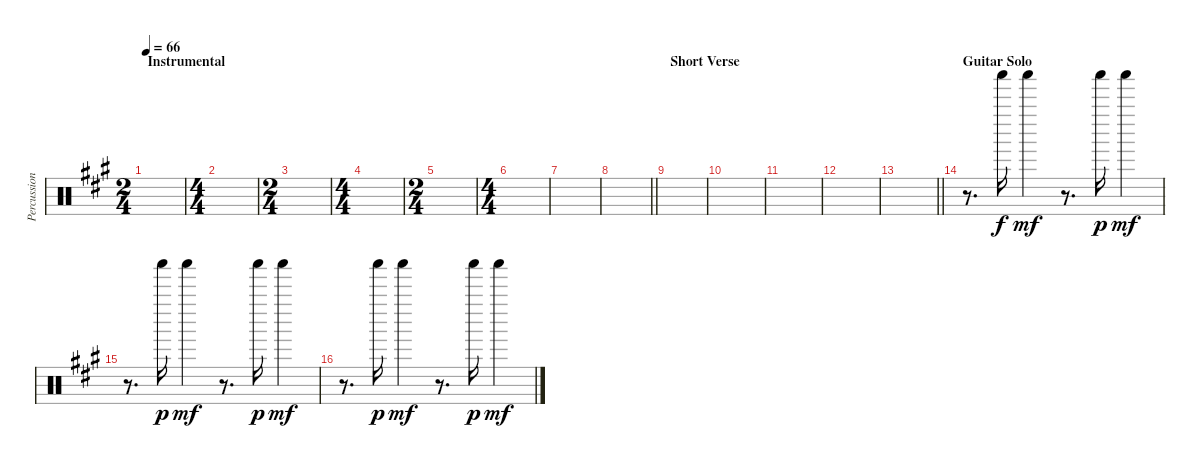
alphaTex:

\track ("Percussion" "Percussion") {instrument percussion}
\staff {score}
\articulation defaults
\ts (2 4)
\section ("" "Instrumental")
\tempo 66
\clef neutral
\ks f#minor
|
\ts (4 4)
|
\ts (2 4)
|
\ts (4 4)
|
\ts (2 4)
|
\ts (4 4)
|
|
\barLineRight lightlight
|
\section ("" "Short Verse")
|
|
|
|
\barLineRight lightlight
|
\section ("" "Guitar Solo")
r.8{d} "Shaker (hit)".16 "Shaker (hit)".4{dy mf} r.8{d} "Shaker (hit)".16{dy p} "Shaker (hit)".4{dy mf} |
r.8{d} "Shaker (hit)".16{dy p} "Shaker (hit)".4{dy mf} r.8{d} "Shaker (hit)".16{dy p} "Shaker (hit)".4{dy mf} |
r.8{d} "Shaker (hit)".16{dy p} "Shaker (hit)".4{dy mf} r.8{d} "Shaker (hit)".16{dy p} "Shaker (hit)".4{dy mf}
